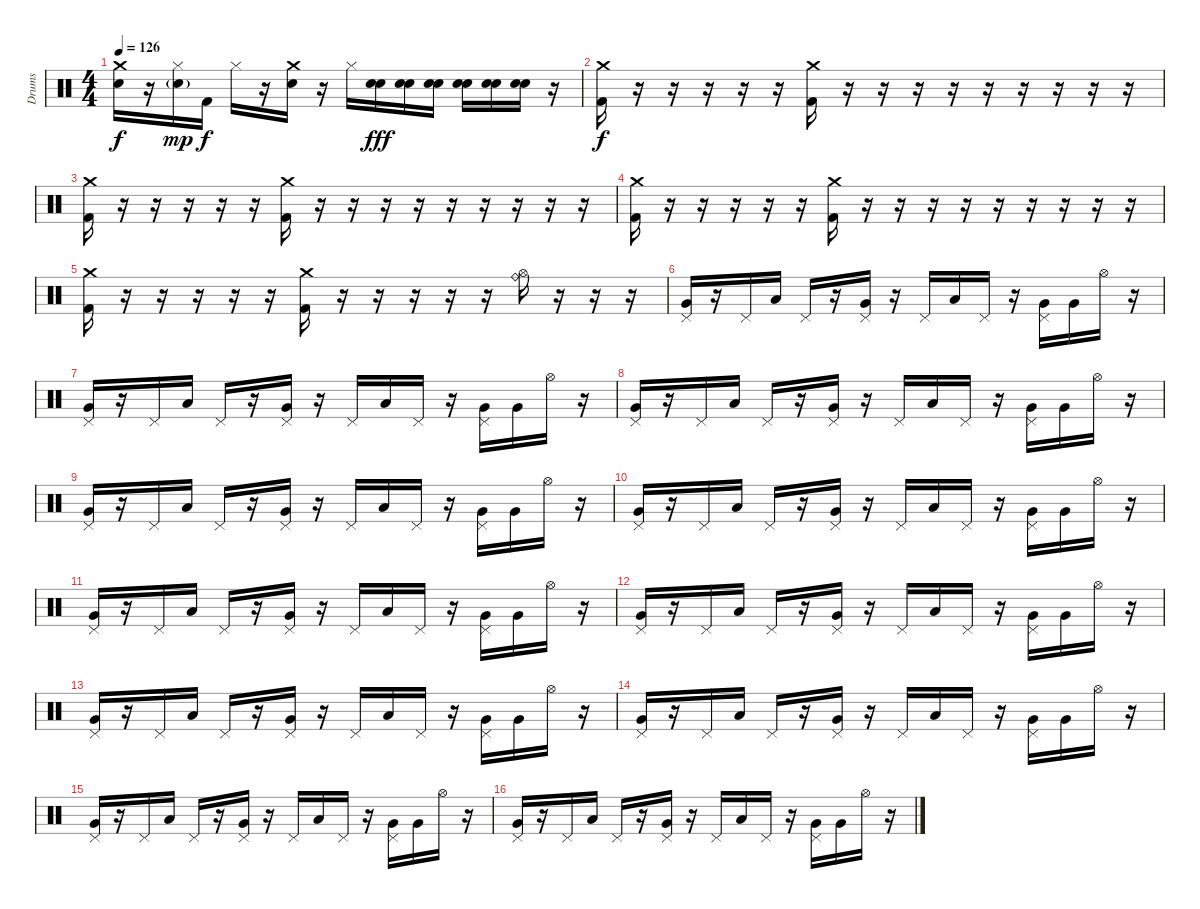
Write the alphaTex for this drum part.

\track ("Drums" "Drums") {instrument percussion}
\staff {score}
\articulation defaults
\ts (4 4)
\tempo 126
\clef neutral
\ks c
("Crash medium (hit)" "Snare (hit) 2").16{dy f} r.16 ("Hi-Hat (closed)" "Snare (hit) 2"{g}).16{dy mp} "Kick (hit) 2".16{dy f} "Hi-Hat (closed)".16 r.16 ("Crash medium (hit)" "Snare (hit) 2").16 r.16 "Hi-Hat (closed)".16 ("Snare (hit) 2" "Snare (hit) 2").16{dy fff} ("Snare (hit) 2" "Snare (hit) 2").16 ("Snare (hit) 2" "Snare (hit) 2").16 ("Snare (hit) 2" "Snare (hit) 2").16 ("Snare (hit) 2" "Snare (hit) 2").16 ("Snare (hit) 2" "Snare (hit) 2").16 r.16 |
("Crash medium (hit)" "Kick (hit) 2").16{dy f} r.16 r.16 r.16 r.16 r.16 ("Crash medium (hit)" "Kick (hit) 2").16 r.16 r.16 r.16 r.16 r.16 r.16 r.16 r.16 r.16 |
("Crash medium (hit)" "Kick (hit) 2").16 r.16 r.16 r.16 r.16 r.16 ("Crash medium (hit)" "Kick (hit) 2").16 r.16 r.16 r.16 r.16 r.16 r.16 r.16 r.16 r.16 |
("Crash medium (hit)" "Kick (hit) 2").16 r.16 r.16 r.16 r.16 r.16 ("Crash medium (hit)" "Kick (hit) 2").16 r.16 r.16 r.16 r.16 r.16 r.16 r.16 r.16 r.16 |
("Crash medium (hit)" "Kick (hit) 2").16 r.16 r.16 r.16 r.16 r.16 ("Crash medium (hit)" "Kick (hit) 2").16 r.16 r.16 r.16 r.16 r.16 ("Ride (bell)" "Hi-Hat (open)").16 r.16 r.16 r.16 |
("Pedal Hi-Hat (hit)" "Very Low Tom (hit)").16 r.16 "Pedal Hi-Hat (hit)".16 "Low Floor Tom (hit)".16 "Pedal Hi-Hat (hit)".16 r.16 ("Pedal Hi-Hat (hit)" "Very Low Tom (hit)").16 r.16 "Pedal Hi-Hat (hit)".16 "Low Floor Tom (hit)".16 "Pedal Hi-Hat (hit)".16 r.16 ("Pedal Hi-Hat (hit)" "Very Low Tom (hit)").16 "Very Low Tom (hit)".16 "Hi-Hat (open)".16 r.16 |
("Pedal Hi-Hat (hit)" "Very Low Tom (hit)").16 r.16 "Pedal Hi-Hat (hit)".16 "Low Floor Tom (hit)".16 "Pedal Hi-Hat (hit)".16 r.16 ("Pedal Hi-Hat (hit)" "Very Low Tom (hit)").16 r.16 "Pedal Hi-Hat (hit)".16 "Low Floor Tom (hit)".16 "Pedal Hi-Hat (hit)".16 r.16 ("Pedal Hi-Hat (hit)" "Very Low Tom (hit)").16 "Very Low Tom (hit)".16 "Hi-Hat (open)".16 r.16 |
("Pedal Hi-Hat (hit)" "Very Low Tom (hit)").16 r.16 "Pedal Hi-Hat (hit)".16 "Low Floor Tom (hit)".16 "Pedal Hi-Hat (hit)".16 r.16 ("Pedal Hi-Hat (hit)" "Very Low Tom (hit)").16 r.16 "Pedal Hi-Hat (hit)".16 "Low Floor Tom (hit)".16 "Pedal Hi-Hat (hit)".16 r.16 ("Pedal Hi-Hat (hit)" "Very Low Tom (hit)").16 "Very Low Tom (hit)".16 "Hi-Hat (open)".16 r.16 |
("Pedal Hi-Hat (hit)" "Very Low Tom (hit)").16 r.16 "Pedal Hi-Hat (hit)".16 "Low Floor Tom (hit)".16 "Pedal Hi-Hat (hit)".16 r.16 ("Pedal Hi-Hat (hit)" "Very Low Tom (hit)").16 r.16 "Pedal Hi-Hat (hit)".16 "Low Floor Tom (hit)".16 "Pedal Hi-Hat (hit)".16 r.16 ("Pedal Hi-Hat (hit)" "Very Low Tom (hit)").16 "Very Low Tom (hit)".16 "Hi-Hat (open)".16 r.16 |
("Pedal Hi-Hat (hit)" "Very Low Tom (hit)").16 r.16 "Pedal Hi-Hat (hit)".16 "Low Floor Tom (hit)".16 "Pedal Hi-Hat (hit)".16 r.16 ("Pedal Hi-Hat (hit)" "Very Low Tom (hit)").16 r.16 "Pedal Hi-Hat (hit)".16 "Low Floor Tom (hit)".16 "Pedal Hi-Hat (hit)".16 r.16 ("Pedal Hi-Hat (hit)" "Very Low Tom (hit)").16 "Very Low Tom (hit)".16 "Hi-Hat (open)".16 r.16 |
("Pedal Hi-Hat (hit)" "Very Low Tom (hit)").16 r.16 "Pedal Hi-Hat (hit)".16 "Low Floor Tom (hit)".16 "Pedal Hi-Hat (hit)".16 r.16 ("Pedal Hi-Hat (hit)" "Very Low Tom (hit)").16 r.16 "Pedal Hi-Hat (hit)".16 "Low Floor Tom (hit)".16 "Pedal Hi-Hat (hit)".16 r.16 ("Pedal Hi-Hat (hit)" "Very Low Tom (hit)").16 "Very Low Tom (hit)".16 "Hi-Hat (open)".16 r.16 |
("Pedal Hi-Hat (hit)" "Very Low Tom (hit)").16 r.16 "Pedal Hi-Hat (hit)".16 "Low Floor Tom (hit)".16 "Pedal Hi-Hat (hit)".16 r.16 ("Pedal Hi-Hat (hit)" "Very Low Tom (hit)").16 r.16 "Pedal Hi-Hat (hit)".16 "Low Floor Tom (hit)".16 "Pedal Hi-Hat (hit)".16 r.16 ("Pedal Hi-Hat (hit)" "Very Low Tom (hit)").16 "Very Low Tom (hit)".16 "Hi-Hat (open)".16 r.16 |
("Pedal Hi-Hat (hit)" "Very Low Tom (hit)").16 r.16 "Pedal Hi-Hat (hit)".16 "Low Floor Tom (hit)".16 "Pedal Hi-Hat (hit)".16 r.16 ("Pedal Hi-Hat (hit)" "Very Low Tom (hit)").16 r.16 "Pedal Hi-Hat (hit)".16 "Low Floor Tom (hit)".16 "Pedal Hi-Hat (hit)".16 r.16 ("Pedal Hi-Hat (hit)" "Very Low Tom (hit)").16 "Very Low Tom (hit)".16 "Hi-Hat (open)".16 r.16 |
("Pedal Hi-Hat (hit)" "Very Low Tom (hit)").16 r.16 "Pedal Hi-Hat (hit)".16 "Low Floor Tom (hit)".16 "Pedal Hi-Hat (hit)".16 r.16 ("Pedal Hi-Hat (hit)" "Very Low Tom (hit)").16 r.16 "Pedal Hi-Hat (hit)".16 "Low Floor Tom (hit)".16 "Pedal Hi-Hat (hit)".16 r.16 ("Pedal Hi-Hat (hit)" "Very Low Tom (hit)").16 "Very Low Tom (hit)".16 "Hi-Hat (open)".16 r.16 |
("Pedal Hi-Hat (hit)" "Very Low Tom (hit)").16 r.16 "Pedal Hi-Hat (hit)".16 "Low Floor Tom (hit)".16 "Pedal Hi-Hat (hit)".16 r.16 ("Pedal Hi-Hat (hit)" "Very Low Tom (hit)").16 r.16 "Pedal Hi-Hat (hit)".16 "Low Floor Tom (hit)".16 "Pedal Hi-Hat (hit)".16 r.16 ("Pedal Hi-Hat (hit)" "Very Low Tom (hit)").16 "Very Low Tom (hit)".16 "Hi-Hat (open)".16 r.16 |
("Pedal Hi-Hat (hit)" "Very Low Tom (hit)").16 r.16 "Pedal Hi-Hat (hit)".16 "Low Floor Tom (hit)".16 "Pedal Hi-Hat (hit)".16 r.16 ("Pedal Hi-Hat (hit)" "Very Low Tom (hit)").16 r.16 "Pedal Hi-Hat (hit)".16 "Low Floor Tom (hit)".16 "Pedal Hi-Hat (hit)".16 r.16 ("Pedal Hi-Hat (hit)" "Very Low Tom (hit)").16 "Very Low Tom (hit)".16 "Hi-Hat (open)".16 r.16
